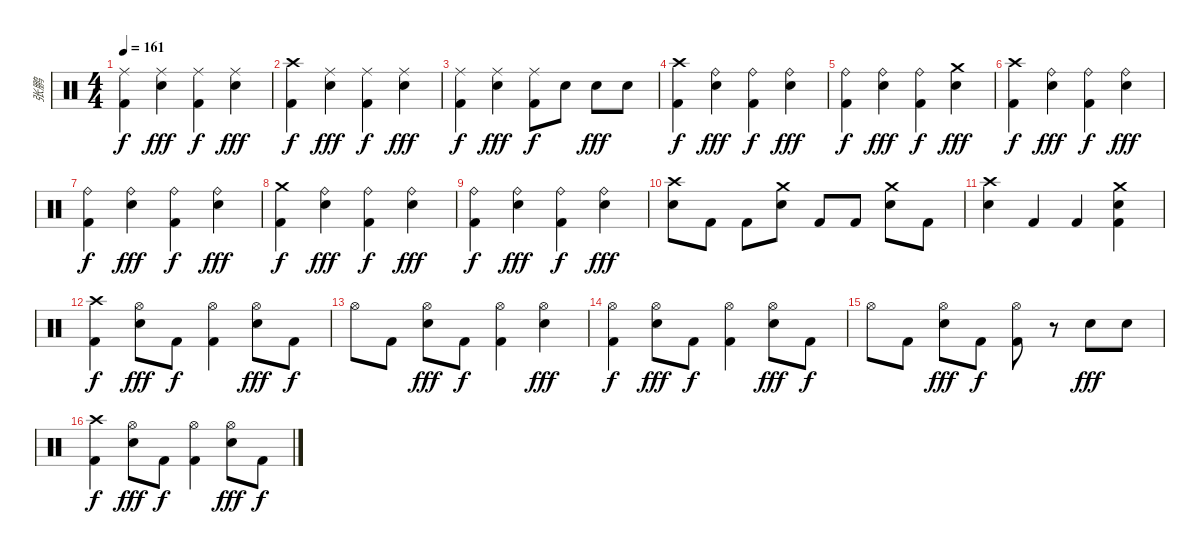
\track ("张鹏" "张鹏") {instrument percussion}
\staff {score}
\articulation defaults
\ts (4 4)
\tempo 161
\clef neutral
\ks c
("Ride (middle)" "Kick (hit) 2").4{dy f} ("Ride (middle)" "Electric Snare (hit)").4{dy fff} ("Ride (middle)" "Kick (hit) 2").4{dy f} ("Ride (middle)" "Electric Snare (hit)").4{dy fff} |
("Crash high (hit)" "Kick (hit) 2").4{dy f} ("Ride (middle)" "Electric Snare (hit)").4{dy fff} ("Ride (middle)" "Kick (hit) 2").4{dy f} ("Ride (middle)" "Electric Snare (hit)").4{dy fff} |
("Ride (middle)" "Kick (hit) 2").4{dy f} ("Ride (middle)" "Electric Snare (hit)").4{dy fff} ("Ride (middle)" "Kick (hit) 2").8{dy f} "Electric Snare (hit)".8 "Electric Snare (hit)".8{dy fff} "Electric Snare (hit)".8 |
("Crash high (hit)" "Kick (hit) 2").4{dy f} ("Ride (bell)" "Electric Snare (hit)").4{dy fff} ("Ride (bell)" "Kick (hit) 2").4{dy f} ("Ride (bell)" "Electric Snare (hit)").4{dy fff} |
("Ride (bell)" "Kick (hit) 2").4{dy f} ("Ride (bell)" "Electric Snare (hit)").4{dy fff} ("Ride (bell)" "Kick (hit) 2").4{dy f} ("Crash medium (hit)" "Electric Snare (hit)").4{dy fff} |
("Crash high (hit)" "Kick (hit) 2").4{dy f} ("Ride (bell)" "Electric Snare (hit)").4{dy fff} ("Ride (bell)" "Kick (hit) 2").4{dy f} ("Ride (bell)" "Electric Snare (hit)").4{dy fff} |
("Ride (bell)" "Kick (hit) 2").4{dy f} ("Ride (bell)" "Electric Snare (hit)").4{dy fff} ("Ride (bell)" "Kick (hit) 2").4{dy f} ("Ride (bell)" "Electric Snare (hit)").4{dy fff} |
("Crash medium (hit)" "Kick (hit) 2").4{dy f} ("Ride (bell)" "Electric Snare (hit)").4{dy fff} ("Ride (bell)" "Kick (hit) 2").4{dy f} ("Ride (bell)" "Electric Snare (hit)").4{dy fff} |
("Ride (bell)" "Kick (hit) 2").4{dy f} ("Ride (bell)" "Electric Snare (hit)").4{dy fff} ("Ride (bell)" "Kick (hit) 2").4{dy f} ("Ride (bell)" "Electric Snare (hit)").4{dy fff} |
("Crash high (hit)" "Electric Snare (hit)").8 "Kick (hit) 2".8 "Kick (hit) 2".8 ("Crash medium (hit)" "Electric Snare (hit)").8 "Kick (hit) 2".8 "Kick (hit) 2".8 ("Crash medium (hit)" "Electric Snare (hit)").8 "Kick (hit) 2".8 |
("Crash high (hit)" "Electric Snare (hit)").4 "Kick (hit) 2".4 "Kick (hit) 2".4 ("Crash medium (hit)" "Electric Snare (hit)" "Kick (hit) 2").4 |
("Crash high (hit)" "Kick (hit) 2").4{dy f} ("Hi-Hat (open)" "Electric Snare (hit)").8{dy fff} "Kick (hit) 2".8{dy f} ("Hi-Hat (open)" "Kick (hit) 2").4 ("Hi-Hat (open)" "Electric Snare (hit)").8{dy fff} "Kick (hit) 2".8{dy f} |
"Hi-Hat (open)".8 "Kick (hit) 2".8 ("Hi-Hat (open)" "Electric Snare (hit)").8{dy fff} "Kick (hit) 2".8{dy f} ("Hi-Hat (open)" "Kick (hit) 2").4 ("Hi-Hat (open)" "Electric Snare (hit)").4{dy fff} |
("Hi-Hat (open)" "Kick (hit) 2").4{dy f} ("Hi-Hat (open)" "Electric Snare (hit)").8{dy fff} "Kick (hit) 2".8{dy f} ("Hi-Hat (open)" "Kick (hit) 2").4 ("Hi-Hat (open)" "Electric Snare (hit)").8{dy fff} "Kick (hit) 2".8{dy f} |
"Hi-Hat (open)".8 "Kick (hit) 2".8 ("Hi-Hat (open)" "Electric Snare (hit)").8{dy fff} "Kick (hit) 2".8{dy f} ("Hi-Hat (open)" "Kick (hit) 2").8 r.8 "Electric Snare (hit)".8{dy fff} "Electric Snare (hit)".8 |
("Crash high (hit)" "Kick (hit) 2").4{dy f} ("Hi-Hat (open)" "Electric Snare (hit)").8{dy fff} "Kick (hit) 2".8{dy f} ("Hi-Hat (open)" "Kick (hit) 2").4 ("Hi-Hat (open)" "Electric Snare (hit)").8{dy fff} "Kick (hit) 2".8{dy f}
